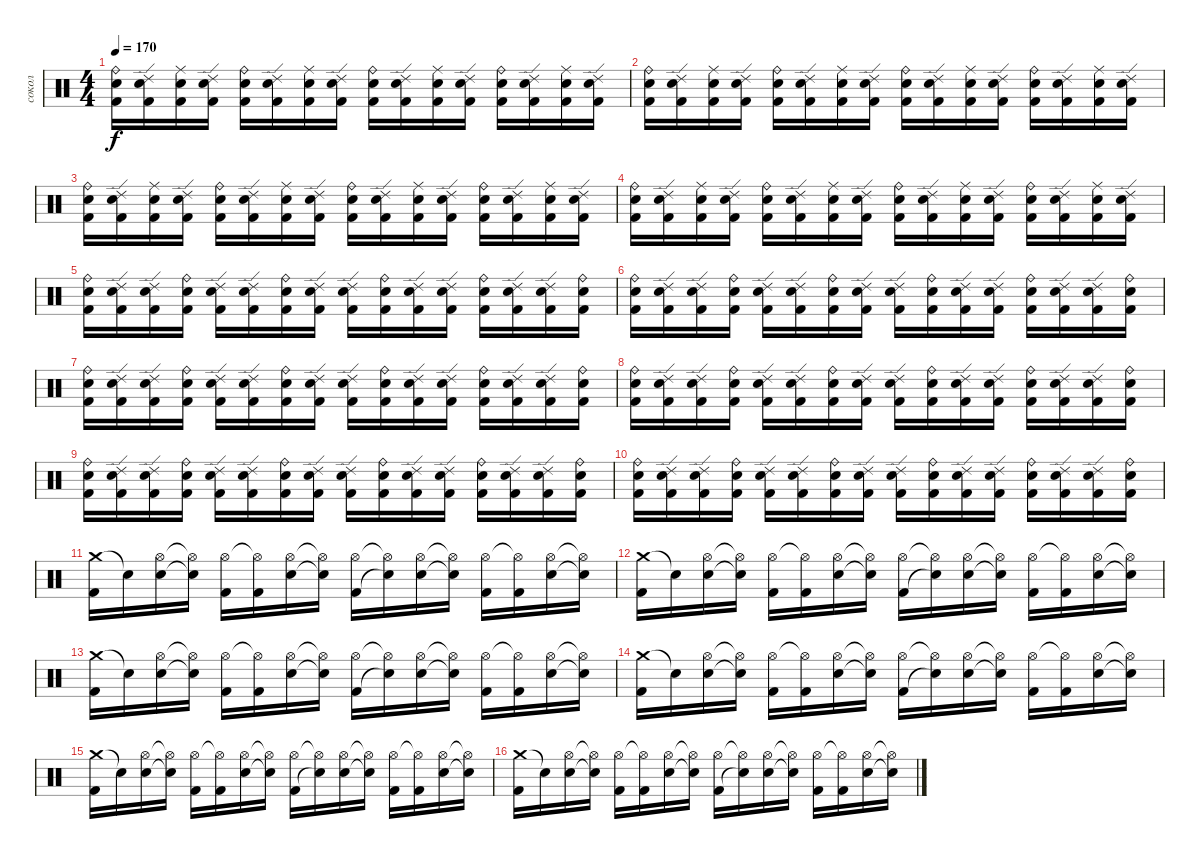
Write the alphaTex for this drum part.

\track ("сокол" "сокол") {instrument percussion}
\staff
\articulation defaults
\ts (4 4)
\tempo 170
\clef neutral
\ks c
("Ride (bell)" "Electric Snare (hit)" "Kick (hit) 2").16{dy f} ("Ride (edge) 2" "Electric Snare (hit)" "Kick (hit) 2").16 ("Ride (middle)" "Electric Snare (hit)" "Kick (hit) 2").16 ("Ride (edge) 2" "Electric Snare (hit)" "Kick (hit) 2").16 ("Ride (bell)" "Electric Snare (hit)" "Kick (hit) 2").16 ("Ride (edge) 2" "Electric Snare (hit)" "Kick (hit) 2").16 ("Ride (middle)" "Electric Snare (hit)" "Kick (hit) 2").16 ("Ride (edge) 2" "Electric Snare (hit)" "Kick (hit) 2").16 ("Ride (bell)" "Electric Snare (hit)" "Kick (hit) 2").16 ("Ride (edge) 2" "Electric Snare (hit)" "Kick (hit) 2").16 ("Ride (middle)" "Electric Snare (hit)" "Kick (hit) 2").16 ("Ride (edge) 2" "Electric Snare (hit)" "Kick (hit) 2").16 ("Ride (bell)" "Electric Snare (hit)" "Kick (hit) 2").16 ("Ride (edge) 2" "Electric Snare (hit)" "Kick (hit) 2").16 ("Ride (middle)" "Electric Snare (hit)" "Kick (hit) 2").16 ("Ride (edge) 2" "Electric Snare (hit)" "Kick (hit) 2").16 |
("Ride (bell)" "Electric Snare (hit)" "Kick (hit) 2").16 ("Ride (edge) 2" "Electric Snare (hit)" "Kick (hit) 2").16 ("Ride (middle)" "Electric Snare (hit)" "Kick (hit) 2").16 ("Ride (edge) 2" "Electric Snare (hit)" "Kick (hit) 2").16 ("Ride (bell)" "Electric Snare (hit)" "Kick (hit) 2").16 ("Ride (edge) 2" "Electric Snare (hit)" "Kick (hit) 2").16 ("Ride (middle)" "Electric Snare (hit)" "Kick (hit) 2").16 ("Ride (edge) 2" "Electric Snare (hit)" "Kick (hit) 2").16 ("Ride (bell)" "Electric Snare (hit)" "Kick (hit) 2").16 ("Ride (edge) 2" "Electric Snare (hit)" "Kick (hit) 2").16 ("Ride (middle)" "Electric Snare (hit)" "Kick (hit) 2").16 ("Ride (edge) 2" "Electric Snare (hit)" "Kick (hit) 2").16 ("Ride (bell)" "Electric Snare (hit)" "Kick (hit) 2").16 ("Ride (edge) 2" "Electric Snare (hit)" "Kick (hit) 2").16 ("Ride (middle)" "Electric Snare (hit)" "Kick (hit) 2").16 ("Ride (edge) 2" "Electric Snare (hit)" "Kick (hit) 2").16 |
("Ride (bell)" "Electric Snare (hit)" "Kick (hit) 2").16 ("Ride (edge) 2" "Electric Snare (hit)" "Kick (hit) 2").16 ("Ride (middle)" "Electric Snare (hit)" "Kick (hit) 2").16 ("Ride (edge) 2" "Electric Snare (hit)" "Kick (hit) 2").16 ("Ride (bell)" "Electric Snare (hit)" "Kick (hit) 2").16 ("Ride (edge) 2" "Electric Snare (hit)" "Kick (hit) 2").16 ("Ride (middle)" "Electric Snare (hit)" "Kick (hit) 2").16 ("Ride (edge) 2" "Electric Snare (hit)" "Kick (hit) 2").16 ("Ride (bell)" "Electric Snare (hit)" "Kick (hit) 2").16 ("Ride (edge) 2" "Electric Snare (hit)" "Kick (hit) 2").16 ("Ride (middle)" "Electric Snare (hit)" "Kick (hit) 2").16 ("Ride (edge) 2" "Electric Snare (hit)" "Kick (hit) 2").16 ("Ride (bell)" "Electric Snare (hit)" "Kick (hit) 2").16 ("Ride (edge) 2" "Electric Snare (hit)" "Kick (hit) 2").16 ("Ride (middle)" "Electric Snare (hit)" "Kick (hit) 2").16 ("Ride (edge) 2" "Electric Snare (hit)" "Kick (hit) 2").16 |
("Ride (bell)" "Electric Snare (hit)" "Kick (hit) 2").16 ("Ride (edge) 2" "Electric Snare (hit)" "Kick (hit) 2").16 ("Ride (middle)" "Electric Snare (hit)" "Kick (hit) 2").16 ("Ride (edge) 2" "Electric Snare (hit)" "Kick (hit) 2").16 ("Ride (bell)" "Electric Snare (hit)" "Kick (hit) 2").16 ("Ride (edge) 2" "Electric Snare (hit)" "Kick (hit) 2").16 ("Ride (middle)" "Electric Snare (hit)" "Kick (hit) 2").16 ("Ride (edge) 2" "Electric Snare (hit)" "Kick (hit) 2").16 ("Ride (bell)" "Electric Snare (hit)" "Kick (hit) 2").16 ("Ride (edge) 2" "Electric Snare (hit)" "Kick (hit) 2").16 ("Ride (middle)" "Electric Snare (hit)" "Kick (hit) 2").16 ("Ride (edge) 2" "Electric Snare (hit)" "Kick (hit) 2").16 ("Ride (bell)" "Electric Snare (hit)" "Kick (hit) 2").16 ("Ride (edge) 2" "Electric Snare (hit)" "Kick (hit) 2").16 ("Ride (middle)" "Electric Snare (hit)" "Kick (hit) 2").16 ("Ride (edge) 2" "Electric Snare (hit)" "Kick (hit) 2").16 |
("Ride (bell)" "Electric Snare (hit)" "Kick (hit) 2").16 ("Ride (edge) 2" "Electric Snare (hit)" "Kick (hit) 2").16 ("Ride (edge) 2" "Electric Snare (hit)" "Kick (hit) 2").16 ("Ride (bell)" "Electric Snare (hit)" "Kick (hit) 2").16 ("Ride (edge) 2" "Electric Snare (hit)" "Kick (hit) 2").16 ("Ride (edge) 2" "Electric Snare (hit)" "Kick (hit) 2").16 ("Ride (bell)" "Electric Snare (hit)" "Kick (hit) 2").16 ("Ride (edge) 2" "Electric Snare (hit)" "Kick (hit) 2").16 ("Ride (edge) 2" "Electric Snare (hit)" "Kick (hit) 2").16 ("Ride (bell)" "Electric Snare (hit)" "Kick (hit) 2").16 ("Ride (edge) 2" "Electric Snare (hit)" "Kick (hit) 2").16 ("Ride (edge) 2" "Electric Snare (hit)" "Kick (hit) 2").16 ("Ride (bell)" "Electric Snare (hit)" "Kick (hit) 2").16 ("Ride (edge) 2" "Electric Snare (hit)" "Kick (hit) 2").16 ("Ride (edge) 2" "Electric Snare (hit)" "Kick (hit) 2").16 ("Ride (bell)" "Electric Snare (hit)" "Kick (hit) 2").16 |
("Ride (bell)" "Electric Snare (hit)" "Kick (hit) 2").16 ("Ride (edge) 2" "Electric Snare (hit)" "Kick (hit) 2").16 ("Ride (edge) 2" "Electric Snare (hit)" "Kick (hit) 2").16 ("Ride (bell)" "Electric Snare (hit)" "Kick (hit) 2").16 ("Ride (edge) 2" "Electric Snare (hit)" "Kick (hit) 2").16 ("Ride (edge) 2" "Electric Snare (hit)" "Kick (hit) 2").16 ("Ride (bell)" "Electric Snare (hit)" "Kick (hit) 2").16 ("Ride (edge) 2" "Electric Snare (hit)" "Kick (hit) 2").16 ("Ride (edge) 2" "Electric Snare (hit)" "Kick (hit) 2").16 ("Ride (bell)" "Electric Snare (hit)" "Kick (hit) 2").16 ("Ride (edge) 2" "Electric Snare (hit)" "Kick (hit) 2").16 ("Ride (edge) 2" "Electric Snare (hit)" "Kick (hit) 2").16 ("Ride (bell)" "Electric Snare (hit)" "Kick (hit) 2").16 ("Ride (edge) 2" "Electric Snare (hit)" "Kick (hit) 2").16 ("Ride (edge) 2" "Electric Snare (hit)" "Kick (hit) 2").16 ("Ride (bell)" "Electric Snare (hit)" "Kick (hit) 2").16 |
("Ride (bell)" "Electric Snare (hit)" "Kick (hit) 2").16 ("Ride (edge) 2" "Electric Snare (hit)" "Kick (hit) 2").16 ("Ride (edge) 2" "Electric Snare (hit)" "Kick (hit) 2").16 ("Ride (bell)" "Electric Snare (hit)" "Kick (hit) 2").16 ("Ride (edge) 2" "Electric Snare (hit)" "Kick (hit) 2").16 ("Ride (edge) 2" "Electric Snare (hit)" "Kick (hit) 2").16 ("Ride (bell)" "Electric Snare (hit)" "Kick (hit) 2").16 ("Ride (edge) 2" "Electric Snare (hit)" "Kick (hit) 2").16 ("Ride (edge) 2" "Electric Snare (hit)" "Kick (hit) 2").16 ("Ride (bell)" "Electric Snare (hit)" "Kick (hit) 2").16 ("Ride (edge) 2" "Electric Snare (hit)" "Kick (hit) 2").16 ("Ride (edge) 2" "Electric Snare (hit)" "Kick (hit) 2").16 ("Ride (bell)" "Electric Snare (hit)" "Kick (hit) 2").16 ("Ride (edge) 2" "Electric Snare (hit)" "Kick (hit) 2").16 ("Ride (edge) 2" "Electric Snare (hit)" "Kick (hit) 2").16 ("Ride (bell)" "Electric Snare (hit)" "Kick (hit) 2").16 |
("Ride (bell)" "Electric Snare (hit)" "Kick (hit) 2").16 ("Ride (edge) 2" "Electric Snare (hit)" "Kick (hit) 2").16 ("Ride (edge) 2" "Electric Snare (hit)" "Kick (hit) 2").16 ("Ride (bell)" "Electric Snare (hit)" "Kick (hit) 2").16 ("Ride (edge) 2" "Electric Snare (hit)" "Kick (hit) 2").16 ("Ride (edge) 2" "Electric Snare (hit)" "Kick (hit) 2").16 ("Ride (bell)" "Electric Snare (hit)" "Kick (hit) 2").16 ("Ride (edge) 2" "Electric Snare (hit)" "Kick (hit) 2").16 ("Ride (edge) 2" "Electric Snare (hit)" "Kick (hit) 2").16 ("Ride (bell)" "Electric Snare (hit)" "Kick (hit) 2").16 ("Ride (edge) 2" "Electric Snare (hit)" "Kick (hit) 2").16 ("Ride (edge) 2" "Electric Snare (hit)" "Kick (hit) 2").16 ("Ride (bell)" "Electric Snare (hit)" "Kick (hit) 2").16 ("Ride (edge) 2" "Electric Snare (hit)" "Kick (hit) 2").16 ("Ride (edge) 2" "Electric Snare (hit)" "Kick (hit) 2").16 ("Ride (bell)" "Electric Snare (hit)" "Kick (hit) 2").16 |
("Ride (bell)" "Electric Snare (hit)" "Kick (hit) 2").16 ("Ride (edge) 2" "Electric Snare (hit)" "Kick (hit) 2").16 ("Ride (edge) 2" "Electric Snare (hit)" "Kick (hit) 2").16 ("Ride (bell)" "Electric Snare (hit)" "Kick (hit) 2").16 ("Ride (edge) 2" "Electric Snare (hit)" "Kick (hit) 2").16 ("Ride (edge) 2" "Electric Snare (hit)" "Kick (hit) 2").16 ("Ride (bell)" "Electric Snare (hit)" "Kick (hit) 2").16 ("Ride (edge) 2" "Electric Snare (hit)" "Kick (hit) 2").16 ("Ride (edge) 2" "Electric Snare (hit)" "Kick (hit) 2").16 ("Ride (bell)" "Electric Snare (hit)" "Kick (hit) 2").16 ("Ride (edge) 2" "Electric Snare (hit)" "Kick (hit) 2").16 ("Ride (edge) 2" "Electric Snare (hit)" "Kick (hit) 2").16 ("Ride (bell)" "Electric Snare (hit)" "Kick (hit) 2").16 ("Ride (edge) 2" "Electric Snare (hit)" "Kick (hit) 2").16 ("Ride (edge) 2" "Electric Snare (hit)" "Kick (hit) 2").16 ("Ride (bell)" "Electric Snare (hit)" "Kick (hit) 2").16 |
("Ride (bell)" "Electric Snare (hit)" "Kick (hit) 2").16 ("Ride (edge) 2" "Electric Snare (hit)" "Kick (hit) 2").16 ("Ride (edge) 2" "Electric Snare (hit)" "Kick (hit) 2").16 ("Ride (bell)" "Electric Snare (hit)" "Kick (hit) 2").16 ("Ride (edge) 2" "Electric Snare (hit)" "Kick (hit) 2").16 ("Ride (edge) 2" "Electric Snare (hit)" "Kick (hit) 2").16 ("Ride (bell)" "Electric Snare (hit)" "Kick (hit) 2").16 ("Ride (edge) 2" "Electric Snare (hit)" "Kick (hit) 2").16 ("Ride (edge) 2" "Electric Snare (hit)" "Kick (hit) 2").16 ("Ride (bell)" "Electric Snare (hit)" "Kick (hit) 2").16 ("Ride (edge) 2" "Electric Snare (hit)" "Kick (hit) 2").16 ("Ride (edge) 2" "Electric Snare (hit)" "Kick (hit) 2").16 ("Ride (bell)" "Electric Snare (hit)" "Kick (hit) 2").16 ("Ride (edge) 2" "Electric Snare (hit)" "Kick (hit) 2").16 ("Ride (edge) 2" "Electric Snare (hit)" "Kick (hit) 2").16 ("Ride (bell)" "Electric Snare (hit)" "Kick (hit) 2").16 |
("Crash medium (hit)" "Kick (hit) 2").16 "Snare (hit)"{t}.16 ("Hi-Hat (open)" "Electric Snare (hit)").16 ("Hi-Hat (open)"{t} "Snare (hit)"{t}).16 ("Hi-Hat (open)" "Kick (hit) 2").16 ("Hi-Hat (open)"{t} "Kick (hit) 2").16 ("Hi-Hat (open)" "Electric Snare (hit)").16 ("Hi-Hat (open)"{t} "Snare (hit)"{t}).16 ("Hi-Hat (open)" "Kick (hit) 2").16 ("Hi-Hat (open)"{t} "Snare (hit)"{t}).16 ("Hi-Hat (open)" "Electric Snare (hit)").16 ("Hi-Hat (open)"{t} "Snare (hit)"{t}).16 ("Hi-Hat (open)" "Kick (hit) 2").16 ("Hi-Hat (open)"{t} "Kick (hit) 2").16 ("Hi-Hat (open)" "Electric Snare (hit)").16 ("Hi-Hat (open)"{t} "Snare (hit)"{t}).16 |
("Crash medium (hit)" "Kick (hit) 2").16 "Snare (hit)"{t}.16 ("Hi-Hat (open)" "Electric Snare (hit)").16 ("Hi-Hat (open)"{t} "Snare (hit)"{t}).16 ("Hi-Hat (open)" "Kick (hit) 2").16 ("Hi-Hat (open)"{t} "Kick (hit) 2").16 ("Hi-Hat (open)" "Electric Snare (hit)").16 ("Hi-Hat (open)"{t} "Snare (hit)"{t}).16 ("Hi-Hat (open)" "Kick (hit) 2").16 ("Hi-Hat (open)"{t} "Snare (hit)"{t}).16 ("Hi-Hat (open)" "Electric Snare (hit)").16 ("Hi-Hat (open)"{t} "Snare (hit)"{t}).16 ("Hi-Hat (open)" "Kick (hit) 2").16 ("Hi-Hat (open)"{t} "Kick (hit) 2").16 ("Hi-Hat (open)" "Electric Snare (hit)").16 ("Hi-Hat (open)"{t} "Snare (hit)"{t}).16 |
("Crash medium (hit)" "Kick (hit) 2").16 "Snare (hit)"{t}.16 ("Hi-Hat (open)" "Electric Snare (hit)").16 ("Hi-Hat (open)"{t} "Snare (hit)"{t}).16 ("Hi-Hat (open)" "Kick (hit) 2").16 ("Hi-Hat (open)"{t} "Kick (hit) 2").16 ("Hi-Hat (open)" "Electric Snare (hit)").16 ("Hi-Hat (open)"{t} "Snare (hit)"{t}).16 ("Hi-Hat (open)" "Kick (hit) 2").16 ("Hi-Hat (open)"{t} "Snare (hit)"{t}).16 ("Hi-Hat (open)" "Electric Snare (hit)").16 ("Hi-Hat (open)"{t} "Snare (hit)"{t}).16 ("Hi-Hat (open)" "Kick (hit) 2").16 ("Hi-Hat (open)"{t} "Kick (hit) 2").16 ("Hi-Hat (open)" "Electric Snare (hit)").16 ("Hi-Hat (open)"{t} "Snare (hit)"{t}).16 |
("Crash medium (hit)" "Kick (hit) 2").16 "Snare (hit)"{t}.16 ("Hi-Hat (open)" "Electric Snare (hit)").16 ("Hi-Hat (open)"{t} "Snare (hit)"{t}).16 ("Hi-Hat (open)" "Kick (hit) 2").16 ("Hi-Hat (open)"{t} "Kick (hit) 2").16 ("Hi-Hat (open)" "Electric Snare (hit)").16 ("Hi-Hat (open)"{t} "Snare (hit)"{t}).16 ("Hi-Hat (open)" "Kick (hit) 2").16 ("Hi-Hat (open)"{t} "Snare (hit)"{t}).16 ("Hi-Hat (open)" "Electric Snare (hit)").16 ("Hi-Hat (open)"{t} "Snare (hit)"{t}).16 ("Hi-Hat (open)" "Kick (hit) 2").16 ("Hi-Hat (open)"{t} "Kick (hit) 2").16 ("Hi-Hat (open)" "Electric Snare (hit)").16 ("Hi-Hat (open)"{t} "Snare (hit)"{t}).16 |
("Crash medium (hit)" "Kick (hit) 2").16 "Snare (hit)"{t}.16 ("Hi-Hat (open)" "Electric Snare (hit)").16 ("Hi-Hat (open)"{t} "Snare (hit)"{t}).16 ("Hi-Hat (open)" "Kick (hit) 2").16 ("Hi-Hat (open)"{t} "Kick (hit) 2").16 ("Hi-Hat (open)" "Electric Snare (hit)").16 ("Hi-Hat (open)"{t} "Snare (hit)"{t}).16 ("Hi-Hat (open)" "Kick (hit) 2").16 ("Hi-Hat (open)"{t} "Snare (hit)"{t}).16 ("Hi-Hat (open)" "Electric Snare (hit)").16 ("Hi-Hat (open)"{t} "Snare (hit)"{t}).16 ("Hi-Hat (open)" "Kick (hit) 2").16 ("Hi-Hat (open)"{t} "Kick (hit) 2").16 ("Hi-Hat (open)" "Electric Snare (hit)").16 ("Hi-Hat (open)"{t} "Snare (hit)"{t}).16 |
("Crash medium (hit)" "Kick (hit) 2").16 "Snare (hit)"{t}.16 ("Hi-Hat (open)" "Electric Snare (hit)").16 ("Hi-Hat (open)"{t} "Snare (hit)"{t}).16 ("Hi-Hat (open)" "Kick (hit) 2").16 ("Hi-Hat (open)"{t} "Kick (hit) 2").16 ("Hi-Hat (open)" "Electric Snare (hit)").16 ("Hi-Hat (open)"{t} "Snare (hit)"{t}).16 ("Hi-Hat (open)" "Kick (hit) 2").16 ("Hi-Hat (open)"{t} "Snare (hit)"{t}).16 ("Hi-Hat (open)" "Electric Snare (hit)").16 ("Hi-Hat (open)"{t} "Snare (hit)"{t}).16 ("Hi-Hat (open)" "Kick (hit) 2").16 ("Hi-Hat (open)"{t} "Kick (hit) 2").16 ("Hi-Hat (open)" "Electric Snare (hit)").16 ("Hi-Hat (open)"{t} "Snare (hit)"{t}).16
